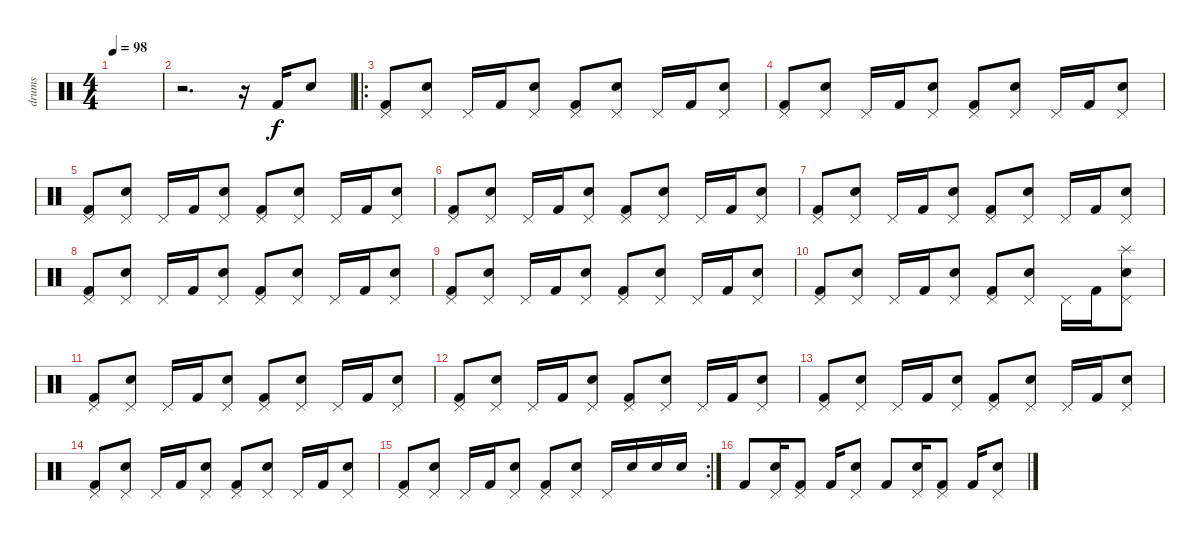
\track ("drums" "drums") {instrument percussion}
\staff {score}
\articulation defaults
\ts (4 4)
\tempo 98
\clef neutral
\ks c
|
r.2{d} r.16 "Kick (hit) 2".16 "Electric Snare (hit)".8 |
\ro
("Pedal Hi-Hat (hit)" "Kick (hit) 2").8 ("Pedal Hi-Hat (hit)" "Electric Snare (hit)").8 "Pedal Hi-Hat (hit)".16 "Kick (hit) 2".16 ("Pedal Hi-Hat (hit)" "Electric Snare (hit)").8 ("Pedal Hi-Hat (hit)" "Kick (hit) 2").8 ("Pedal Hi-Hat (hit)" "Electric Snare (hit)").8 "Pedal Hi-Hat (hit)".16 "Kick (hit) 2".16 ("Pedal Hi-Hat (hit)" "Electric Snare (hit)").8 |
("Pedal Hi-Hat (hit)" "Kick (hit) 2").8 ("Pedal Hi-Hat (hit)" "Electric Snare (hit)").8 "Pedal Hi-Hat (hit)".16 "Kick (hit) 2".16 ("Pedal Hi-Hat (hit)" "Electric Snare (hit)").8 ("Pedal Hi-Hat (hit)" "Kick (hit) 2").8 ("Pedal Hi-Hat (hit)" "Electric Snare (hit)").8 "Pedal Hi-Hat (hit)".16 "Kick (hit) 2".16 ("Pedal Hi-Hat (hit)" "Electric Snare (hit)").8 |
("Pedal Hi-Hat (hit)" "Kick (hit) 2").8 ("Pedal Hi-Hat (hit)" "Electric Snare (hit)").8 "Pedal Hi-Hat (hit)".16 "Kick (hit) 2".16 ("Pedal Hi-Hat (hit)" "Electric Snare (hit)").8 ("Pedal Hi-Hat (hit)" "Kick (hit) 2").8 ("Pedal Hi-Hat (hit)" "Electric Snare (hit)").8 "Pedal Hi-Hat (hit)".16 "Kick (hit) 2".16 ("Pedal Hi-Hat (hit)" "Electric Snare (hit)").8 |
("Pedal Hi-Hat (hit)" "Kick (hit) 2").8 ("Pedal Hi-Hat (hit)" "Electric Snare (hit)").8 "Pedal Hi-Hat (hit)".16 "Kick (hit) 2".16 ("Pedal Hi-Hat (hit)" "Electric Snare (hit)").8 ("Pedal Hi-Hat (hit)" "Kick (hit) 2").8 ("Pedal Hi-Hat (hit)" "Electric Snare (hit)").8 "Pedal Hi-Hat (hit)".16 "Kick (hit) 2".16 ("Pedal Hi-Hat (hit)" "Electric Snare (hit)").8 |
("Pedal Hi-Hat (hit)" "Kick (hit) 2").8 ("Pedal Hi-Hat (hit)" "Electric Snare (hit)").8 "Pedal Hi-Hat (hit)".16 "Kick (hit) 2".16 ("Pedal Hi-Hat (hit)" "Electric Snare (hit)").8 ("Pedal Hi-Hat (hit)" "Kick (hit) 2").8 ("Pedal Hi-Hat (hit)" "Electric Snare (hit)").8 "Pedal Hi-Hat (hit)".16 "Kick (hit) 2".16 ("Pedal Hi-Hat (hit)" "Electric Snare (hit)").8 |
("Pedal Hi-Hat (hit)" "Kick (hit) 2").8 ("Pedal Hi-Hat (hit)" "Electric Snare (hit)").8 "Pedal Hi-Hat (hit)".16 "Kick (hit) 2".16 ("Pedal Hi-Hat (hit)" "Electric Snare (hit)").8 ("Pedal Hi-Hat (hit)" "Kick (hit) 2").8 ("Pedal Hi-Hat (hit)" "Electric Snare (hit)").8 "Pedal Hi-Hat (hit)".16 "Kick (hit) 2".16 ("Pedal Hi-Hat (hit)" "Electric Snare (hit)").8 |
("Pedal Hi-Hat (hit)" "Kick (hit) 2").8 ("Pedal Hi-Hat (hit)" "Electric Snare (hit)").8 "Pedal Hi-Hat (hit)".16 "Kick (hit) 2".16 ("Pedal Hi-Hat (hit)" "Electric Snare (hit)").8 ("Pedal Hi-Hat (hit)" "Kick (hit) 2").8 ("Pedal Hi-Hat (hit)" "Electric Snare (hit)").8 "Pedal Hi-Hat (hit)".16 "Kick (hit) 2".16 ("Pedal Hi-Hat (hit)" "Electric Snare (hit)").8 |
("Pedal Hi-Hat (hit)" "Kick (hit) 2").8 ("Pedal Hi-Hat (hit)" "Electric Snare (hit)").8 "Pedal Hi-Hat (hit)".16 "Kick (hit) 2".16 ("Pedal Hi-Hat (hit)" "Electric Snare (hit)").8 ("Pedal Hi-Hat (hit)" "Kick (hit) 2").8 ("Pedal Hi-Hat (hit)" "Electric Snare (hit)").8 "Pedal Hi-Hat (hit)".16 "Kick (hit) 2".16 ("Splash (hit)" "Pedal Hi-Hat (hit)" "Electric Snare (hit)").8 |
("Pedal Hi-Hat (hit)" "Kick (hit) 2").8 ("Pedal Hi-Hat (hit)" "Electric Snare (hit)").8 "Pedal Hi-Hat (hit)".16 "Kick (hit) 2".16 ("Pedal Hi-Hat (hit)" "Electric Snare (hit)").8 ("Pedal Hi-Hat (hit)" "Kick (hit) 2").8 ("Pedal Hi-Hat (hit)" "Electric Snare (hit)").8 "Pedal Hi-Hat (hit)".16 "Kick (hit) 2".16 ("Pedal Hi-Hat (hit)" "Electric Snare (hit)").8 |
("Pedal Hi-Hat (hit)" "Kick (hit) 2").8 ("Pedal Hi-Hat (hit)" "Electric Snare (hit)").8 "Pedal Hi-Hat (hit)".16 "Kick (hit) 2".16 ("Pedal Hi-Hat (hit)" "Electric Snare (hit)").8 ("Pedal Hi-Hat (hit)" "Kick (hit) 2").8 ("Pedal Hi-Hat (hit)" "Electric Snare (hit)").8 "Pedal Hi-Hat (hit)".16 "Kick (hit) 2".16 ("Pedal Hi-Hat (hit)" "Electric Snare (hit)").8 |
("Pedal Hi-Hat (hit)" "Kick (hit) 2").8 ("Pedal Hi-Hat (hit)" "Electric Snare (hit)").8 "Pedal Hi-Hat (hit)".16 "Kick (hit) 2".16 ("Pedal Hi-Hat (hit)" "Electric Snare (hit)").8 ("Pedal Hi-Hat (hit)" "Kick (hit) 2").8 ("Pedal Hi-Hat (hit)" "Electric Snare (hit)").8 "Pedal Hi-Hat (hit)".16 "Kick (hit) 2".16 ("Pedal Hi-Hat (hit)" "Electric Snare (hit)").8 |
("Pedal Hi-Hat (hit)" "Kick (hit) 2").8 ("Pedal Hi-Hat (hit)" "Electric Snare (hit)").8 "Pedal Hi-Hat (hit)".16 "Kick (hit) 2".16 ("Pedal Hi-Hat (hit)" "Electric Snare (hit)").8 ("Pedal Hi-Hat (hit)" "Kick (hit) 2").8 ("Pedal Hi-Hat (hit)" "Electric Snare (hit)").8 "Pedal Hi-Hat (hit)".16 "Kick (hit) 2".16 ("Pedal Hi-Hat (hit)" "Electric Snare (hit)").8 |
\rc 2
("Pedal Hi-Hat (hit)" "Kick (hit) 2").8 ("Pedal Hi-Hat (hit)" "Electric Snare (hit)").8 "Pedal Hi-Hat (hit)".16 "Kick (hit) 2".16 ("Pedal Hi-Hat (hit)" "Electric Snare (hit)").8 ("Pedal Hi-Hat (hit)" "Kick (hit) 2").8 ("Pedal Hi-Hat (hit)" "Electric Snare (hit)").8 "Pedal Hi-Hat (hit)".16 "Electric Snare (hit)".16 "Electric Snare (hit)".16 "Electric Snare (hit)".16 |
"Kick (hit) 2".8 ("Pedal Hi-Hat (hit)" "Electric Snare (hit)").16 ("Pedal Hi-Hat (hit)" "Kick (hit) 2").8 "Kick (hit) 2".16 ("Pedal Hi-Hat (hit)" "Electric Snare (hit)").8 "Kick (hit) 2".8 ("Pedal Hi-Hat (hit)" "Electric Snare (hit)").16 ("Pedal Hi-Hat (hit)" "Kick (hit) 2").8 "Kick (hit) 2".16 ("Pedal Hi-Hat (hit)" "Electric Snare (hit)").8
